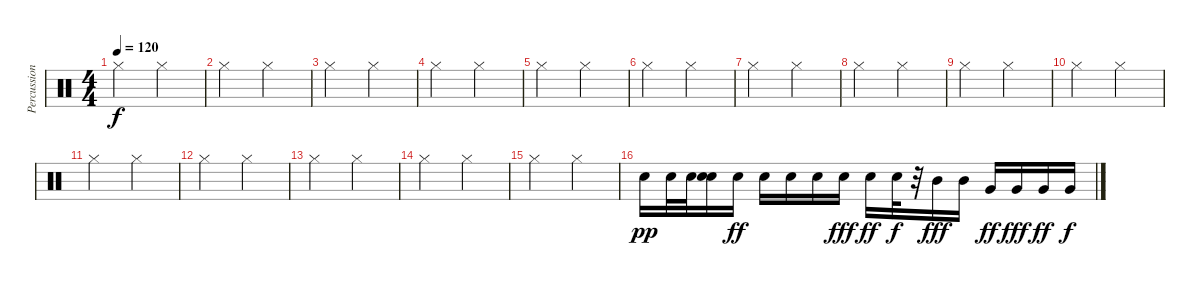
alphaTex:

\track ("Percussion" "Percussion") {instrument percussion}
\staff {score}
\articulation defaults
\ts (4 4)
\tempo 120
\clef neutral
\ks c "Hi-Hat (closed)".2{dy f} "Hi-Hat (closed)".2
|
"Hi-Hat (closed)".2 "Hi-Hat (closed)".2 |
"Hi-Hat (closed)".2 "Hi-Hat (closed)".2 |
"Hi-Hat (closed)".2 "Hi-Hat (closed)".2 |
"Hi-Hat (closed)".2 "Hi-Hat (closed)".2 |
"Hi-Hat (closed)".2 "Hi-Hat (closed)".2 |
"Hi-Hat (closed)".2 "Hi-Hat (closed)".2 |
"Hi-Hat (closed)".2 "Hi-Hat (closed)".2 |
"Hi-Hat (closed)".2 "Hi-Hat (closed)".2 |
"Hi-Hat (closed)".2 "Hi-Hat (closed)".2 |
"Hi-Hat (closed)".2 "Hi-Hat (closed)".2 |
"Hi-Hat (closed)".2 "Hi-Hat (closed)".2 |
"Hi-Hat (closed)".2 "Hi-Hat (closed)".2 |
"Hi-Hat (closed)".2 "Hi-Hat (closed)".2 |
"Hi-Hat (closed)".2 "Hi-Hat (closed)".2 |
"Electric Snare (hit)".16{dy pp} "Electric Snare (hit)".32 "Electric Snare (hit)".32 ("Electric Snare (hit)" "Electric Snare (hit)").16 "Electric Snare (hit)".16{dy ff} "Electric Snare (hit)".16 "Electric Snare (hit)".16 "Electric Snare (hit)".16 "Electric Snare (hit)".16{dy fff} "Electric Snare (hit)".16{dy ff} "Electric Snare (hit)".32{dy f} r.32 "Mid Tom (hit)".16{dy fff} "Mid Tom (hit)".16 "Very Low Tom (hit)".16{dy ff} "Very Low Tom (hit)".16{dy fff} "Very Low Tom (hit)".16{dy ff} "Very Low Tom (hit)".16{dy f}
